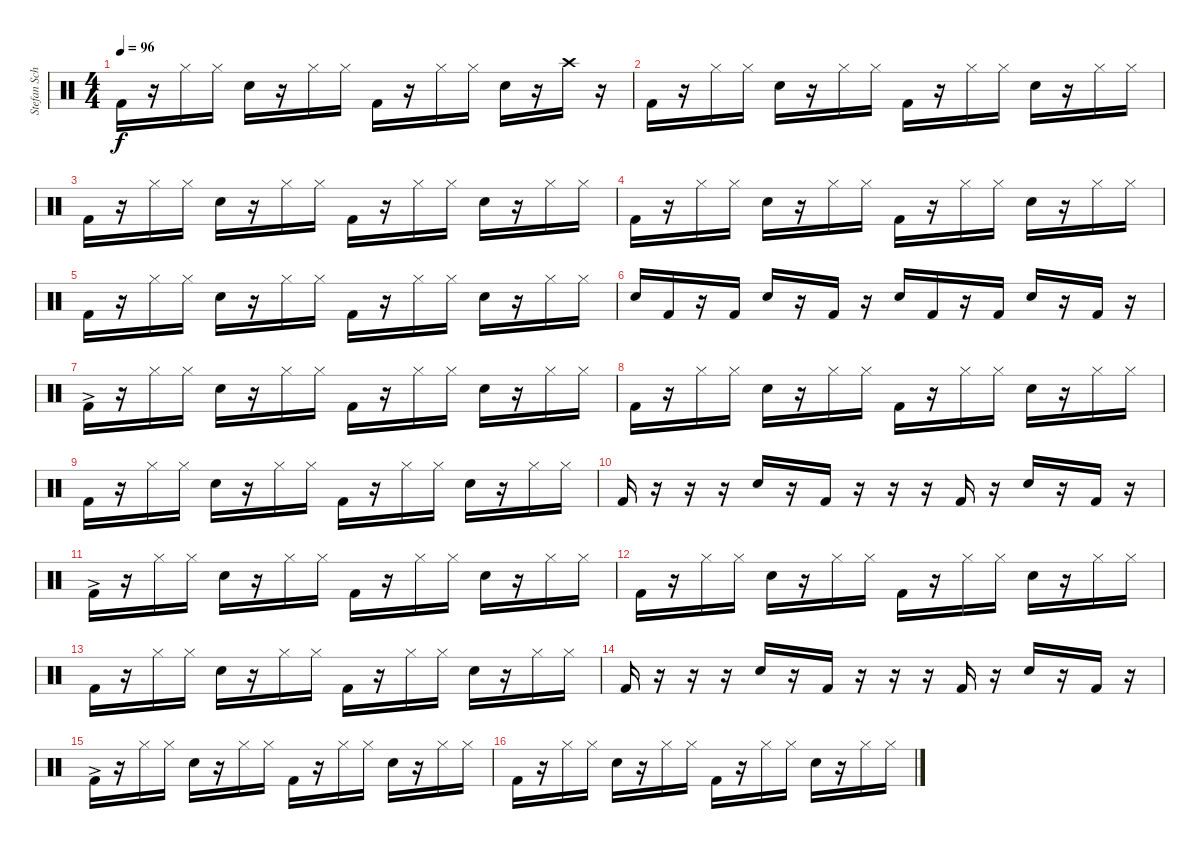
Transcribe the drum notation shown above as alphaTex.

\track ("Stefan Schwarzmann" "Stefan Sch") {instrument percussion}
\staff {score}
\articulation defaults
\ts (4 4)
\tempo 96
\clef neutral
\ks c "Kick (hit) 2".16{dy f}
r.16 "Hi-Hat (closed)".16 "Hi-Hat (closed)".16 "Snare (hit) 2".16 r.16 "Hi-Hat (closed)".16 "Hi-Hat (closed)".16 "Kick (hit) 2".16 r.16 "Hi-Hat (closed)".16 "Hi-Hat (closed)".16 "Snare (hit) 2".16 r.16 "Crash high (hit)".16 r.16 |
"Kick (hit) 2".16 r.16 "Hi-Hat (closed)".16 "Hi-Hat (closed)".16 "Snare (hit) 2".16 r.16 "Hi-Hat (closed)".16 "Hi-Hat (closed)".16 "Kick (hit) 2".16 r.16 "Hi-Hat (closed)".16 "Hi-Hat (closed)".16 "Snare (hit) 2".16 r.16 "Hi-Hat (closed)".16 "Hi-Hat (closed)".16 |
"Kick (hit) 2".16 r.16 "Hi-Hat (closed)".16 "Hi-Hat (closed)".16 "Snare (hit) 2".16 r.16 "Hi-Hat (closed)".16 "Hi-Hat (closed)".16 "Kick (hit) 2".16 r.16 "Hi-Hat (closed)".16 "Hi-Hat (closed)".16 "Snare (hit) 2".16 r.16 "Hi-Hat (closed)".16 "Hi-Hat (closed)".16 |
"Kick (hit) 2".16 r.16 "Hi-Hat (closed)".16 "Hi-Hat (closed)".16 "Snare (hit) 2".16 r.16 "Hi-Hat (closed)".16 "Hi-Hat (closed)".16 "Kick (hit) 2".16 r.16 "Hi-Hat (closed)".16 "Hi-Hat (closed)".16 "Snare (hit) 2".16 r.16 "Hi-Hat (closed)".16 "Hi-Hat (closed)".16 |
"Kick (hit) 2".16 r.16 "Hi-Hat (closed)".16 "Hi-Hat (closed)".16 "Snare (hit) 2".16 r.16 "Hi-Hat (closed)".16 "Hi-Hat (closed)".16 "Kick (hit) 2".16 r.16 "Hi-Hat (closed)".16 "Hi-Hat (closed)".16 "Snare (hit) 2".16 r.16 "Hi-Hat (closed)".16 "Hi-Hat (closed)".16 |
"Snare (hit) 2".16 "Kick (hit) 2".16 r.16 "Kick (hit) 2".16 "Snare (hit) 2".16 r.16 "Kick (hit) 2".16 r.16 "Snare (hit) 2".16 "Kick (hit) 2".16 r.16 "Kick (hit) 2".16 "Snare (hit) 2".16 r.16 "Kick (hit) 2".16 r.16 |
"Kick (hit) 2"{ac}.16 r.16 "Hi-Hat (closed)".16 "Hi-Hat (closed)".16 "Snare (hit) 2".16 r.16 "Hi-Hat (closed)".16 "Hi-Hat (closed)".16 "Kick (hit) 2".16 r.16 "Hi-Hat (closed)".16 "Hi-Hat (closed)".16 "Snare (hit) 2".16 r.16 "Hi-Hat (closed)".16 "Hi-Hat (closed)".16 |
"Kick (hit) 2".16 r.16 "Hi-Hat (closed)".16 "Hi-Hat (closed)".16 "Snare (hit) 2".16 r.16 "Hi-Hat (closed)".16 "Hi-Hat (closed)".16 "Kick (hit) 2".16 r.16 "Hi-Hat (closed)".16 "Hi-Hat (closed)".16 "Snare (hit) 2".16 r.16 "Hi-Hat (closed)".16 "Hi-Hat (closed)".16 |
"Kick (hit) 2".16 r.16 "Hi-Hat (closed)".16 "Hi-Hat (closed)".16 "Snare (hit) 2".16 r.16 "Hi-Hat (closed)".16 "Hi-Hat (closed)".16 "Kick (hit) 2".16 r.16 "Hi-Hat (closed)".16 "Hi-Hat (closed)".16 "Snare (hit) 2".16 r.16 "Hi-Hat (closed)".16 "Hi-Hat (closed)".16 |
"Kick (hit) 2".16 r.16 r.16 r.16 "Snare (hit) 2".16 r.16 "Kick (hit) 2".16 r.16 r.16 r.16 "Kick (hit) 2".16 r.16 "Snare (hit) 2".16 r.16 "Kick (hit) 2".16 r.16 |
"Kick (hit) 2"{ac}.16 r.16 "Hi-Hat (closed)".16 "Hi-Hat (closed)".16 "Snare (hit) 2".16 r.16 "Hi-Hat (closed)".16 "Hi-Hat (closed)".16 "Kick (hit) 2".16 r.16 "Hi-Hat (closed)".16 "Hi-Hat (closed)".16 "Snare (hit) 2".16 r.16 "Hi-Hat (closed)".16 "Hi-Hat (closed)".16 |
"Kick (hit) 2".16 r.16 "Hi-Hat (closed)".16 "Hi-Hat (closed)".16 "Snare (hit) 2".16 r.16 "Hi-Hat (closed)".16 "Hi-Hat (closed)".16 "Kick (hit) 2".16 r.16 "Hi-Hat (closed)".16 "Hi-Hat (closed)".16 "Snare (hit) 2".16 r.16 "Hi-Hat (closed)".16 "Hi-Hat (closed)".16 |
"Kick (hit) 2".16 r.16 "Hi-Hat (closed)".16 "Hi-Hat (closed)".16 "Snare (hit) 2".16 r.16 "Hi-Hat (closed)".16 "Hi-Hat (closed)".16 "Kick (hit) 2".16 r.16 "Hi-Hat (closed)".16 "Hi-Hat (closed)".16 "Snare (hit) 2".16 r.16 "Hi-Hat (closed)".16 "Hi-Hat (closed)".16 |
"Kick (hit) 2".16 r.16 r.16 r.16 "Snare (hit) 2".16 r.16 "Kick (hit) 2".16 r.16 r.16 r.16 "Kick (hit) 2".16 r.16 "Snare (hit) 2".16 r.16 "Kick (hit) 2".16 r.16 |
"Kick (hit) 2"{ac}.16 r.16 "Hi-Hat (closed)".16 "Hi-Hat (closed)".16 "Snare (hit) 2".16 r.16 "Hi-Hat (closed)".16 "Hi-Hat (closed)".16 "Kick (hit) 2".16 r.16 "Hi-Hat (closed)".16 "Hi-Hat (closed)".16 "Snare (hit) 2".16 r.16 "Hi-Hat (closed)".16 "Hi-Hat (closed)".16 |
"Kick (hit) 2".16 r.16 "Hi-Hat (closed)".16 "Hi-Hat (closed)".16 "Snare (hit) 2".16 r.16 "Hi-Hat (closed)".16 "Hi-Hat (closed)".16 "Kick (hit) 2".16 r.16 "Hi-Hat (closed)".16 "Hi-Hat (closed)".16 "Snare (hit) 2".16 r.16 "Hi-Hat (closed)".16 "Hi-Hat (closed)".16
